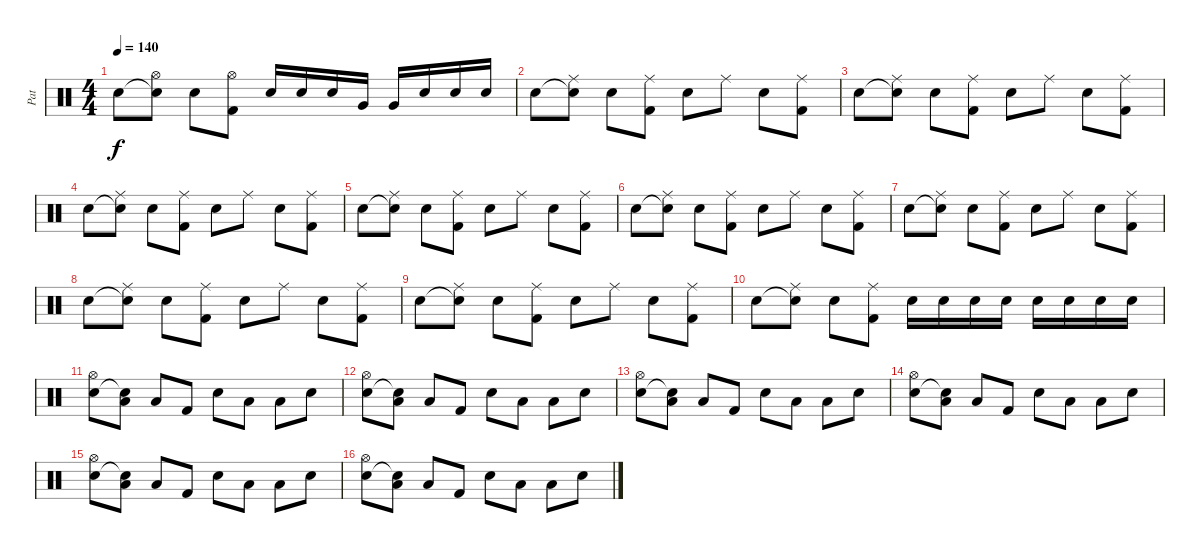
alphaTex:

\track ("Pat" "Pat") {instrument percussion}
\staff {score}
\articulation defaults
\ts (4 4)
\tempo 140
\clef neutral
\ks c "Snare (hit) 2".8{dy f}
("Snare (hit)"{t} "Hi-Hat (open)").8 "Snare (hit) 2".8 ("Kick (hit) 2" "Hi-Hat (open)").8 "Snare (hit) 2".16 "Snare (hit) 2".16 "Snare (hit) 2".16 "Very Low Tom (hit)".16 "Very Low Tom (hit)".16 "Snare (hit) 2".16 "Snare (hit) 2".16 "Snare (hit) 2".16 |
"Snare (hit) 2".8 ("Snare (hit)"{t} "Ride (middle)").8 "Snare (hit) 2".8 ("Kick (hit) 2" "Ride (middle)").8 "Snare (hit) 2".8 "Ride (middle)".8 "Snare (hit) 2".8 ("Kick (hit) 2" "Ride (middle)").8 |
"Snare (hit) 2".8 ("Snare (hit)"{t} "Ride (middle)").8 "Snare (hit) 2".8 ("Kick (hit) 2" "Ride (middle)").8 "Snare (hit) 2".8 "Ride (middle)".8 "Snare (hit) 2".8 ("Kick (hit) 2" "Ride (middle)").8 |
"Snare (hit) 2".8 ("Snare (hit)"{t} "Ride (middle)").8 "Snare (hit) 2".8 ("Kick (hit) 2" "Ride (middle)").8 "Snare (hit) 2".8 "Ride (middle)".8 "Snare (hit) 2".8 ("Kick (hit) 2" "Ride (middle)").8 |
"Snare (hit) 2".8 ("Snare (hit)"{t} "Ride (middle)").8 "Snare (hit) 2".8 ("Kick (hit) 2" "Ride (middle)").8 "Snare (hit) 2".8 "Ride (middle)".8 "Snare (hit) 2".8 ("Kick (hit) 2" "Ride (middle)").8 |
"Snare (hit) 2".8 ("Snare (hit)"{t} "Ride (middle)").8 "Snare (hit) 2".8 ("Kick (hit) 2" "Ride (middle)").8 "Snare (hit) 2".8 "Ride (middle)".8 "Snare (hit) 2".8 ("Kick (hit) 2" "Ride (middle)").8 |
"Snare (hit) 2".8 ("Snare (hit)"{t} "Ride (middle)").8 "Snare (hit) 2".8 ("Kick (hit) 2" "Ride (middle)").8 "Snare (hit) 2".8 "Ride (middle)".8 "Snare (hit) 2".8 ("Kick (hit) 2" "Ride (middle)").8 |
"Snare (hit) 2".8 ("Snare (hit)"{t} "Ride (middle)").8 "Snare (hit) 2".8 ("Kick (hit) 2" "Ride (middle)").8 "Snare (hit) 2".8 "Ride (middle)".8 "Snare (hit) 2".8 ("Kick (hit) 2" "Ride (middle)").8 |
"Snare (hit) 2".8 ("Snare (hit)"{t} "Ride (middle)").8 "Snare (hit) 2".8 ("Kick (hit) 2" "Ride (middle)").8 "Snare (hit) 2".8 "Ride (middle)".8 "Snare (hit) 2".8 ("Kick (hit) 2" "Ride (middle)").8 |
"Snare (hit) 2".8 ("Snare (hit)"{t} "Ride (middle)").8 "Snare (hit) 2".8 ("Kick (hit) 2" "Ride (middle)").8 "Snare (hit) 2".16 "Snare (hit) 2".16 "Snare (hit) 2".16 "Snare (hit) 2".16 "Snare (hit) 2".16 "Snare (hit) 2".16 "Snare (hit) 2".16 "Snare (hit) 2".16 |
("Electric Snare (hit)" "Hi-Hat (open)").8 ("Snare (hit)"{t} "Low Floor Tom (hit)").8 "Low Floor Tom (hit)".8 "Kick (hit) 2".8 "Electric Snare (hit)".8 "Low Floor Tom (hit)".8 "Low Floor Tom (hit)".8 "Electric Snare (hit)".8 |
("Electric Snare (hit)" "Hi-Hat (open)").8 ("Snare (hit)"{t} "Low Floor Tom (hit)").8 "Low Floor Tom (hit)".8 "Kick (hit) 2".8 "Electric Snare (hit)".8 "Low Floor Tom (hit)".8 "Low Floor Tom (hit)".8 "Electric Snare (hit)".8 |
("Electric Snare (hit)" "Hi-Hat (open)").8 ("Snare (hit)"{t} "Low Floor Tom (hit)").8 "Low Floor Tom (hit)".8 "Kick (hit) 2".8 "Electric Snare (hit)".8 "Low Floor Tom (hit)".8 "Low Floor Tom (hit)".8 "Electric Snare (hit)".8 |
("Electric Snare (hit)" "Hi-Hat (open)").8 ("Snare (hit)"{t} "Low Floor Tom (hit)").8 "Low Floor Tom (hit)".8 "Kick (hit) 2".8 "Electric Snare (hit)".8 "Low Floor Tom (hit)".8 "Low Floor Tom (hit)".8 "Electric Snare (hit)".8 |
("Electric Snare (hit)" "Hi-Hat (open)").8 ("Snare (hit)"{t} "Low Floor Tom (hit)").8 "Low Floor Tom (hit)".8 "Kick (hit) 2".8 "Electric Snare (hit)".8 "Low Floor Tom (hit)".8 "Low Floor Tom (hit)".8 "Electric Snare (hit)".8 |
("Electric Snare (hit)" "Hi-Hat (open)").8 ("Snare (hit)"{t} "Low Floor Tom (hit)").8 "Low Floor Tom (hit)".8 "Kick (hit) 2".8 "Electric Snare (hit)".8 "Low Floor Tom (hit)".8 "Low Floor Tom (hit)".8 "Electric Snare (hit)".8
